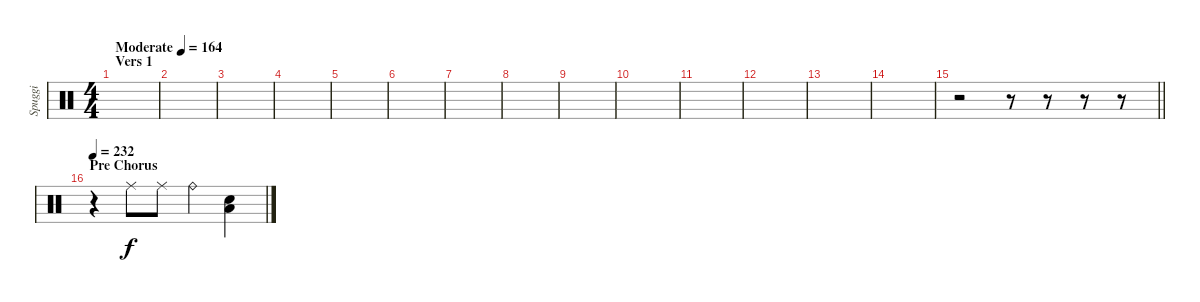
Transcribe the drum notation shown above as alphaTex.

\track ("Spuggi" "Spuggi") {instrument percussion}
\staff {score}
\articulation defaults
\ts (4 4)
\section ("" "Vers 1")
\tempo (164 "Moderate")
\clef neutral
\ks c
|
|
|
|
|
|
|
|
|
|
|
|
|
|
\barLineRight lightlight
r.2 r.8 r.8 r.8 r.8 |
\section ("" "Pre Chorus")
\tempo 232
r.4 "Ride (middle)".8 "Ride (middle)".8 "Ride (bell)".4 ("Snare (hit) 2" "Low Tom (hit)").4
